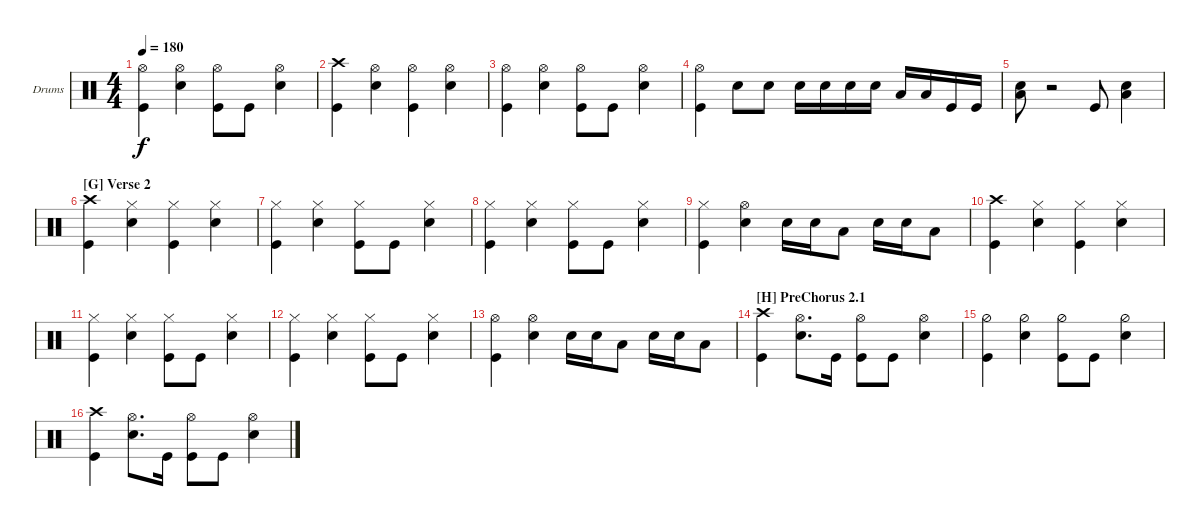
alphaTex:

\defaultSystemsLayout 4
\bracketExtendMode groupsimilarinstruments
\firstSystemTrackNameOrientation horizontal
\otherSystemsTrackNameOrientation horizontal
\track ("Drumkit" "Drums") {instrument percussion}
\staff {score}
\articulation defaults
\ts (4 4)
\tempo 180
\clef neutral
\ks c
("Kick (hit)" "Hi-Hat (open)").4{dy f} ("Snare (hit) 2" "Hi-Hat (open)").4 ("Kick (hit)" "Hi-Hat (open)").8 "Kick (hit)".8 ("Snare (hit) 2" "Hi-Hat (open)").4 |
("Crash high (hit)" "Kick (hit)").4 ("Snare (hit) 2" "Hi-Hat (open)").4 ("Kick (hit)" "Hi-Hat (open)").4 ("Snare (hit) 2" "Hi-Hat (open)").4 |
("Kick (hit)" "Hi-Hat (open)").4 ("Snare (hit) 2" "Hi-Hat (open)").4 ("Kick (hit)" "Hi-Hat (open)").8 "Kick (hit)".8 ("Snare (hit) 2" "Hi-Hat (open)").4 |
("Kick (hit)" "Hi-Hat (open)").4 "Snare (hit) 2".8 "Snare (hit) 2".8 "Snare (hit) 2".16 "Snare (hit) 2".16 "Snare (hit) 2".16 "Snare (hit) 2".16 "Low Tom (hit)".16 "Low Tom (hit)".16 "Kick (hit)".16 "Kick (hit)".16 |
("Low Tom (hit)" "Snare (hit) 2").8 r.2 "Kick (hit)".8 ("Low Tom (hit)" "Snare (hit) 2").4 |
\section ("G" "Verse 2")
("Crash high (hit)" "Kick (hit)").4 ("Snare (hit) 2" "Hi-Hat (closed)").4 ("Kick (hit)" "Hi-Hat (closed)").4 ("Snare (hit) 2" "Hi-Hat (closed)").4 |
("Kick (hit)" "Hi-Hat (closed)").4 ("Snare (hit) 2" "Hi-Hat (closed)").4 ("Kick (hit)" "Hi-Hat (closed)").8 "Kick (hit)".8 ("Snare (hit) 2" "Hi-Hat (closed)").4 |
("Kick (hit)" "Hi-Hat (closed)").4 ("Snare (hit) 2" "Hi-Hat (closed)").4 ("Kick (hit)" "Hi-Hat (closed)").8 "Kick (hit)".8 ("Snare (hit) 2" "Hi-Hat (closed)").4 |
("Kick (hit)" "Hi-Hat (closed)").4 ("Snare (hit) 2" "Hi-Hat (open)").4 "Snare (hit) 2".16 "Snare (hit) 2".16 "Low Tom (hit)".8 "Snare (hit) 2".16 "Snare (hit) 2".16 "Low Tom (hit)".8 |
("Crash high (hit)" "Kick (hit)").4 ("Snare (hit) 2" "Hi-Hat (closed)").4 ("Kick (hit)" "Hi-Hat (closed)").4 ("Snare (hit) 2" "Hi-Hat (closed)").4 |
("Kick (hit)" "Hi-Hat (closed)").4 ("Snare (hit) 2" "Hi-Hat (closed)").4 ("Kick (hit)" "Hi-Hat (closed)").8 "Kick (hit)".8 ("Snare (hit) 2" "Hi-Hat (closed)").4 |
("Kick (hit)" "Hi-Hat (closed)").4 ("Snare (hit) 2" "Hi-Hat (closed)").4 ("Kick (hit)" "Hi-Hat (closed)").8 "Kick (hit)".8 ("Snare (hit) 2" "Hi-Hat (closed)").4 |
("Kick (hit)" "Hi-Hat (open)").4 ("Snare (hit) 2" "Hi-Hat (open)").4 "Snare (hit) 2".16 "Snare (hit) 2".16 "Low Tom (hit)".8 "Snare (hit) 2".16 "Snare (hit) 2".16 "Low Tom (hit)".8 |
\section ("H" "PreChorus 2.1")
("Kick (hit)" "Crash high (hit)").4 ("Snare (hit) 2" "Hi-Hat (open)").8{d} "Kick (hit)".16 ("Kick (hit)" "Hi-Hat (open)").8 "Kick (hit)".8 ("Snare (hit) 2" "Hi-Hat (open)").4 |
("Kick (hit)" "Hi-Hat (half)").4 ("Snare (hit) 2" "Hi-Hat (half)").4 ("Kick (hit)" "Hi-Hat (half)").8 "Kick (hit)".8 ("Snare (hit) 2" "Hi-Hat (half)").4 |
("Kick (hit)" "Crash high (hit)").4 ("Snare (hit) 2" "Hi-Hat (open)").8{d} "Kick (hit)".16 ("Kick (hit)" "Hi-Hat (open)").8 "Kick (hit)".8 ("Snare (hit) 2" "Hi-Hat (open)").4
